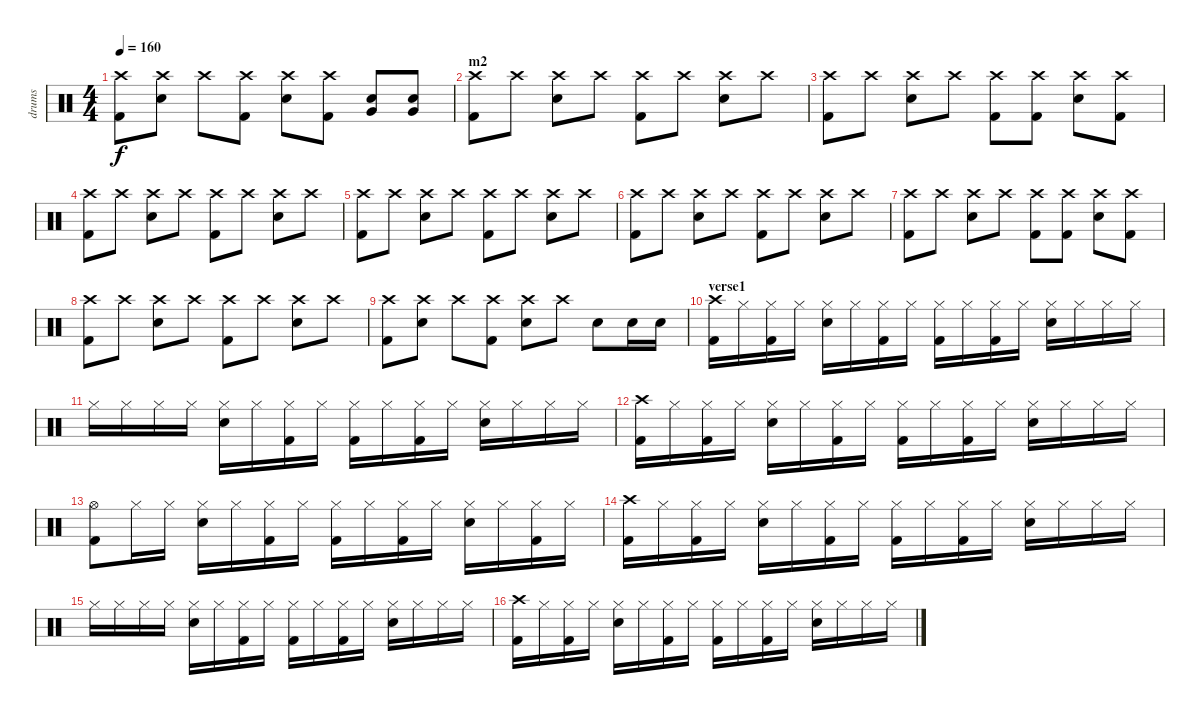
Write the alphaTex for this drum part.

\track ("drums" "drums") {instrument percussion}
\staff {score}
\articulation defaults
\ts (4 4)
\tempo 160
\clef neutral
\ks c
("Crash high (hit)" "Kick (hit) 2").8{dy f} ("Crash high (hit)" "Electric Snare (hit)").8 "Crash high (hit)".8 ("Crash high (hit)" "Kick (hit) 2").8 ("Crash high (hit)" "Electric Snare (hit)").8 ("Crash high (hit)" "Kick (hit) 2").8 ("Very Low Tom (hit)" "Electric Snare (hit)").8 ("Very Low Tom (hit)" "Electric Snare (hit)").8 |
\section ("" "m2")
("Crash high (hit)" "Kick (hit) 2").8 "Crash high (hit)".8 ("Crash high (hit)" "Electric Snare (hit)").8 "Crash high (hit)".8 ("Crash high (hit)" "Kick (hit) 2").8 "Crash high (hit)".8 ("Crash high (hit)" "Electric Snare (hit)").8 "Crash high (hit)".8 |
("Crash high (hit)" "Kick (hit) 2").8 "Crash high (hit)".8 ("Crash high (hit)" "Electric Snare (hit)").8 "Crash high (hit)".8 ("Crash high (hit)" "Kick (hit) 2").8 ("Crash high (hit)" "Kick (hit) 2").8 ("Crash high (hit)" "Electric Snare (hit)").8 ("Crash high (hit)" "Kick (hit) 2").8 |
("Crash high (hit)" "Kick (hit) 2").8 "Crash high (hit)".8 ("Crash high (hit)" "Electric Snare (hit)").8 "Crash high (hit)".8 ("Crash high (hit)" "Kick (hit) 2").8 "Crash high (hit)".8 ("Crash high (hit)" "Electric Snare (hit)").8 "Crash high (hit)".8 |
("Crash high (hit)" "Kick (hit) 2").8 "Crash high (hit)".8 ("Crash high (hit)" "Electric Snare (hit)").8 "Crash high (hit)".8 ("Crash high (hit)" "Kick (hit) 2").8 "Crash high (hit)".8 ("Crash high (hit)" "Electric Snare (hit)").8 "Crash high (hit)".8 |
("Crash high (hit)" "Kick (hit) 2").8 "Crash high (hit)".8 ("Crash high (hit)" "Electric Snare (hit)").8 "Crash high (hit)".8 ("Crash high (hit)" "Kick (hit) 2").8 "Crash high (hit)".8 ("Crash high (hit)" "Electric Snare (hit)").8 "Crash high (hit)".8 |
("Crash high (hit)" "Kick (hit) 2").8 "Crash high (hit)".8 ("Crash high (hit)" "Electric Snare (hit)").8 "Crash high (hit)".8 ("Crash high (hit)" "Kick (hit) 2").8 ("Crash high (hit)" "Kick (hit) 2").8 ("Crash high (hit)" "Electric Snare (hit)").8 ("Crash high (hit)" "Kick (hit) 2").8 |
("Crash high (hit)" "Kick (hit) 2").8 "Crash high (hit)".8 ("Crash high (hit)" "Electric Snare (hit)").8 "Crash high (hit)".8 ("Crash high (hit)" "Kick (hit) 2").8 "Crash high (hit)".8 ("Crash high (hit)" "Electric Snare (hit)").8 "Crash high (hit)".8 |
("Crash high (hit)" "Kick (hit) 2").8 ("Crash high (hit)" "Electric Snare (hit)").8 "Crash high (hit)".8 ("Crash high (hit)" "Kick (hit) 2").8 ("Crash high (hit)" "Electric Snare (hit)").8 "Crash high (hit)".8 "Electric Snare (hit)".8 "Electric Snare (hit)".16 "Electric Snare (hit)".16 |
\section ("" "verse1")
("Crash high (hit)" "Kick (hit) 2").16 "Hi-Hat (closed)".16 ("Hi-Hat (closed)" "Kick (hit) 2").16 "Hi-Hat (closed)".16 ("Hi-Hat (closed)" "Electric Snare (hit)").16 "Hi-Hat (closed)".16 ("Hi-Hat (closed)" "Kick (hit) 2").16 "Hi-Hat (closed)".16 ("Hi-Hat (closed)" "Kick (hit) 2").16 "Hi-Hat (closed)".16 ("Hi-Hat (closed)" "Kick (hit) 2").16 "Hi-Hat (closed)".16 ("Hi-Hat (closed)" "Electric Snare (hit)").16 "Hi-Hat (closed)".16 "Hi-Hat (closed)".16 "Hi-Hat (closed)".16 |
"Hi-Hat (closed)".16 "Hi-Hat (closed)".16 "Hi-Hat (closed)".16 "Hi-Hat (closed)".16 ("Hi-Hat (closed)" "Electric Snare (hit)").16 "Hi-Hat (closed)".16 ("Hi-Hat (closed)" "Kick (hit) 2").16 "Hi-Hat (closed)".16 ("Hi-Hat (closed)" "Kick (hit) 2").16 "Hi-Hat (closed)".16 ("Hi-Hat (closed)" "Kick (hit) 2").16 "Hi-Hat (closed)".16 ("Hi-Hat (closed)" "Electric Snare (hit)").16 "Hi-Hat (closed)".16 "Hi-Hat (closed)".16 "Hi-Hat (closed)".16 |
("Crash high (hit)" "Kick (hit) 2").16 "Hi-Hat (closed)".16 ("Hi-Hat (closed)" "Kick (hit) 2").16 "Hi-Hat (closed)".16 ("Hi-Hat (closed)" "Electric Snare (hit)").16 "Hi-Hat (closed)".16 ("Hi-Hat (closed)" "Kick (hit) 2").16 "Hi-Hat (closed)".16 ("Hi-Hat (closed)" "Kick (hit) 2").16 "Hi-Hat (closed)".16 ("Hi-Hat (closed)" "Kick (hit) 2").16 "Hi-Hat (closed)".16 ("Hi-Hat (closed)" "Electric Snare (hit)").16 "Hi-Hat (closed)".16 "Hi-Hat (closed)".16 "Hi-Hat (closed)".16 |
("Hi-Hat (open)" "Kick (hit) 2").8 "Hi-Hat (closed)".16 "Hi-Hat (closed)".16 ("Hi-Hat (closed)" "Electric Snare (hit)").16 "Hi-Hat (closed)".16 ("Hi-Hat (closed)" "Kick (hit) 2").16 "Hi-Hat (closed)".16 ("Hi-Hat (closed)" "Kick (hit) 2").16 "Hi-Hat (closed)".16 ("Hi-Hat (closed)" "Kick (hit) 2").16 "Hi-Hat (closed)".16 ("Hi-Hat (closed)" "Electric Snare (hit)").16 "Hi-Hat (closed)".16 ("Hi-Hat (closed)" "Kick (hit) 2").16 "Hi-Hat (closed)".16 |
("Crash high (hit)" "Kick (hit) 2").16 "Hi-Hat (closed)".16 ("Hi-Hat (closed)" "Kick (hit) 2").16 "Hi-Hat (closed)".16 ("Hi-Hat (closed)" "Electric Snare (hit)").16 "Hi-Hat (closed)".16 ("Hi-Hat (closed)" "Kick (hit) 2").16 "Hi-Hat (closed)".16 ("Hi-Hat (closed)" "Kick (hit) 2").16 "Hi-Hat (closed)".16 ("Hi-Hat (closed)" "Kick (hit) 2").16 "Hi-Hat (closed)".16 ("Hi-Hat (closed)" "Electric Snare (hit)").16 "Hi-Hat (closed)".16 "Hi-Hat (closed)".16 "Hi-Hat (closed)".16 |
"Hi-Hat (closed)".16 "Hi-Hat (closed)".16 "Hi-Hat (closed)".16 "Hi-Hat (closed)".16 ("Hi-Hat (closed)" "Electric Snare (hit)").16 "Hi-Hat (closed)".16 ("Hi-Hat (closed)" "Kick (hit) 2").16 "Hi-Hat (closed)".16 ("Hi-Hat (closed)" "Kick (hit) 2").16 "Hi-Hat (closed)".16 ("Hi-Hat (closed)" "Kick (hit) 2").16 "Hi-Hat (closed)".16 ("Hi-Hat (closed)" "Electric Snare (hit)").16 "Hi-Hat (closed)".16 "Hi-Hat (closed)".16 "Hi-Hat (closed)".16 |
("Crash high (hit)" "Kick (hit) 2").16 "Hi-Hat (closed)".16 ("Hi-Hat (closed)" "Kick (hit) 2").16 "Hi-Hat (closed)".16 ("Hi-Hat (closed)" "Electric Snare (hit)").16 "Hi-Hat (closed)".16 ("Hi-Hat (closed)" "Kick (hit) 2").16 "Hi-Hat (closed)".16 ("Hi-Hat (closed)" "Kick (hit) 2").16 "Hi-Hat (closed)".16 ("Hi-Hat (closed)" "Kick (hit) 2").16 "Hi-Hat (closed)".16 ("Hi-Hat (closed)" "Electric Snare (hit)").16 "Hi-Hat (closed)".16 "Hi-Hat (closed)".16 "Hi-Hat (closed)".16
